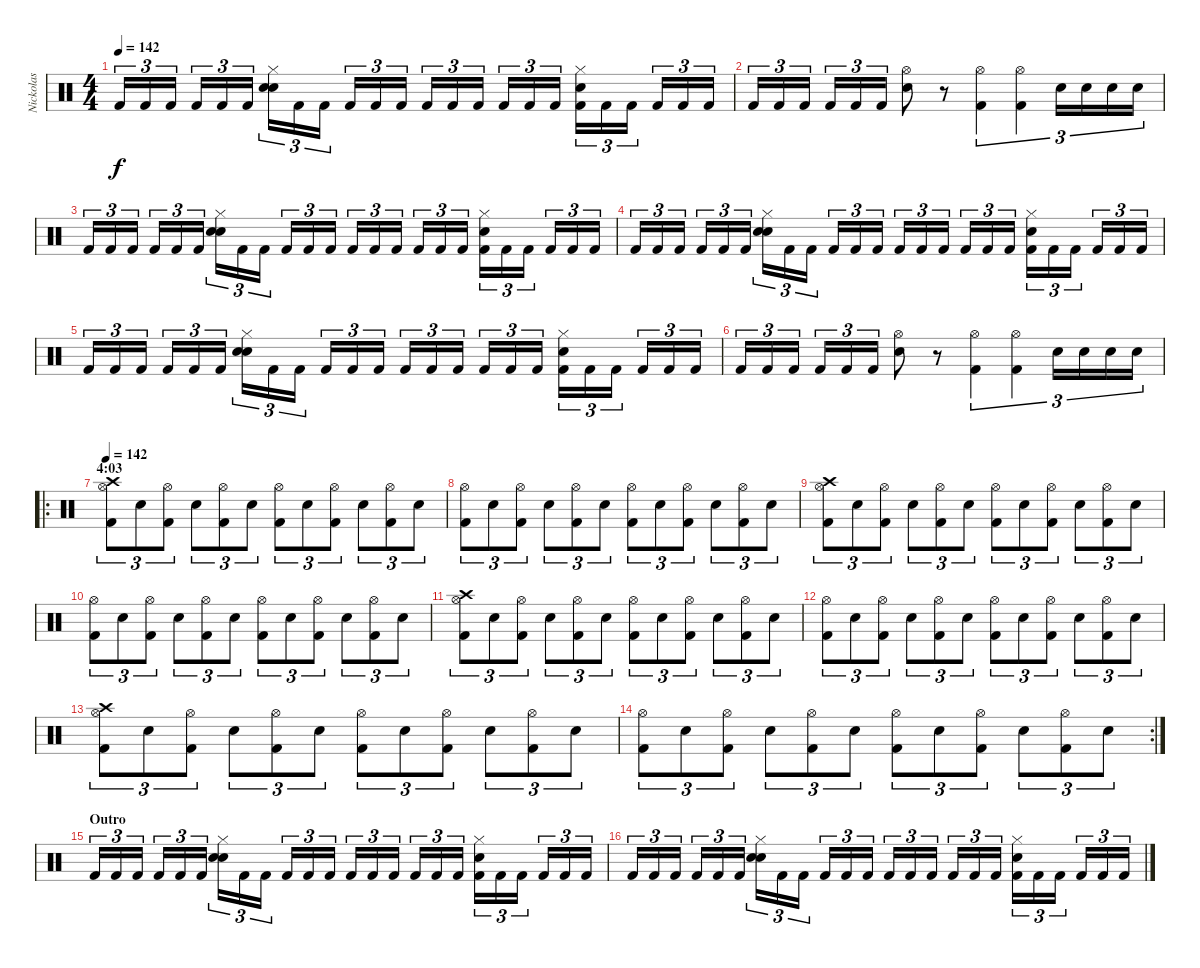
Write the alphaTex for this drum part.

\track ("Nickolas " "Nickolas ") {instrument percussion}
\staff {score}
\articulation defaults
\ts (4 4)
\tempo 142
\clef neutral
\ks c "Kick (hit) 2".16{tu (3 2) dy f} "Kick (hit) 2".16{tu (3 2)} "Kick (hit) 2".16{tu (3 2)} "Kick (hit) 2".16{tu (3 2)} "Kick (hit) 2".16{tu (3 2)} "Kick (hit) 2".16{tu (3 2)}
("Snare (hit) 2" "Snare (hit) 2" "Hi-Hat (closed)").16{tu (3 2)} "Kick (hit) 2".16{tu (3 2)} "Kick (hit) 2".16{tu (3 2)} "Kick (hit) 2".16{tu (3 2)} "Kick (hit) 2".16{tu (3 2)} "Kick (hit) 2".16{tu (3 2)} "Kick (hit) 2".16{tu (3 2)} "Kick (hit) 2".16{tu (3 2)} "Kick (hit) 2".16{tu (3 2)} "Kick (hit) 2".16{tu (3 2)} "Kick (hit) 2".16{tu (3 2)} "Kick (hit) 2".16{tu (3 2)} ("Kick (hit) 2" "Snare (hit) 2" "Hi-Hat (closed)").16{tu (3 2)} "Kick (hit) 2".16{tu (3 2)} "Kick (hit) 2".16{tu (3 2)} "Kick (hit) 2".16{tu (3 2)} "Kick (hit) 2".16{tu (3 2)} "Kick (hit) 2".16{tu (3 2)} |
"Kick (hit) 2".16{tu (3 2)} "Kick (hit) 2".16{tu (3 2)} "Kick (hit) 2".16{tu (3 2)} "Kick (hit) 2".16{tu (3 2)} "Kick (hit) 2".16{tu (3 2)} "Kick (hit) 2".16{tu (3 2)} ("Hi-Hat (open)" "Snare (hit) 2").8 r.8 ("Kick (hit) 2" "Hi-Hat (open)").4{tu (3 2)} ("Kick (hit) 2" "Hi-Hat (open)").4{tu (3 2)} "Snare (hit) 2".16{tu (3 2)} "Snare (hit) 2".16{tu (3 2)} "Snare (hit) 2".16{tu (3 2)} "Snare (hit) 2".16{tu (3 2)} |
"Kick (hit) 2".16{tu (3 2)} "Kick (hit) 2".16{tu (3 2)} "Kick (hit) 2".16{tu (3 2)} "Kick (hit) 2".16{tu (3 2)} "Kick (hit) 2".16{tu (3 2)} "Kick (hit) 2".16{tu (3 2)} ("Snare (hit) 2" "Snare (hit) 2" "Hi-Hat (closed)").16{tu (3 2)} "Kick (hit) 2".16{tu (3 2)} "Kick (hit) 2".16{tu (3 2)} "Kick (hit) 2".16{tu (3 2)} "Kick (hit) 2".16{tu (3 2)} "Kick (hit) 2".16{tu (3 2)} "Kick (hit) 2".16{tu (3 2)} "Kick (hit) 2".16{tu (3 2)} "Kick (hit) 2".16{tu (3 2)} "Kick (hit) 2".16{tu (3 2)} "Kick (hit) 2".16{tu (3 2)} "Kick (hit) 2".16{tu (3 2)} ("Kick (hit) 2" "Snare (hit) 2" "Hi-Hat (closed)").16{tu (3 2)} "Kick (hit) 2".16{tu (3 2)} "Kick (hit) 2".16{tu (3 2)} "Kick (hit) 2".16{tu (3 2)} "Kick (hit) 2".16{tu (3 2)} "Kick (hit) 2".16{tu (3 2)} |
"Kick (hit) 2".16{tu (3 2)} "Kick (hit) 2".16{tu (3 2)} "Kick (hit) 2".16{tu (3 2)} "Kick (hit) 2".16{tu (3 2)} "Kick (hit) 2".16{tu (3 2)} "Kick (hit) 2".16{tu (3 2)} ("Snare (hit) 2" "Snare (hit) 2" "Hi-Hat (closed)").16{tu (3 2)} "Kick (hit) 2".16{tu (3 2)} "Kick (hit) 2".16{tu (3 2)} "Kick (hit) 2".16{tu (3 2)} "Kick (hit) 2".16{tu (3 2)} "Kick (hit) 2".16{tu (3 2)} "Kick (hit) 2".16{tu (3 2)} "Kick (hit) 2".16{tu (3 2)} "Kick (hit) 2".16{tu (3 2)} "Kick (hit) 2".16{tu (3 2)} "Kick (hit) 2".16{tu (3 2)} "Kick (hit) 2".16{tu (3 2)} ("Kick (hit) 2" "Snare (hit) 2" "Hi-Hat (closed)").16{tu (3 2)} "Kick (hit) 2".16{tu (3 2)} "Kick (hit) 2".16{tu (3 2)} "Kick (hit) 2".16{tu (3 2)} "Kick (hit) 2".16{tu (3 2)} "Kick (hit) 2".16{tu (3 2)} |
"Kick (hit) 2".16{tu (3 2)} "Kick (hit) 2".16{tu (3 2)} "Kick (hit) 2".16{tu (3 2)} "Kick (hit) 2".16{tu (3 2)} "Kick (hit) 2".16{tu (3 2)} "Kick (hit) 2".16{tu (3 2)} ("Snare (hit) 2" "Snare (hit) 2" "Hi-Hat (closed)").16{tu (3 2)} "Kick (hit) 2".16{tu (3 2)} "Kick (hit) 2".16{tu (3 2)} "Kick (hit) 2".16{tu (3 2)} "Kick (hit) 2".16{tu (3 2)} "Kick (hit) 2".16{tu (3 2)} "Kick (hit) 2".16{tu (3 2)} "Kick (hit) 2".16{tu (3 2)} "Kick (hit) 2".16{tu (3 2)} "Kick (hit) 2".16{tu (3 2)} "Kick (hit) 2".16{tu (3 2)} "Kick (hit) 2".16{tu (3 2)} ("Kick (hit) 2" "Snare (hit) 2" "Hi-Hat (closed)").16{tu (3 2)} "Kick (hit) 2".16{tu (3 2)} "Kick (hit) 2".16{tu (3 2)} "Kick (hit) 2".16{tu (3 2)} "Kick (hit) 2".16{tu (3 2)} "Kick (hit) 2".16{tu (3 2)} |
"Kick (hit) 2".16{tu (3 2)} "Kick (hit) 2".16{tu (3 2)} "Kick (hit) 2".16{tu (3 2)} "Kick (hit) 2".16{tu (3 2)} "Kick (hit) 2".16{tu (3 2)} "Kick (hit) 2".16{tu (3 2)} ("Hi-Hat (open)" "Snare (hit) 2").8 r.8 ("Kick (hit) 2" "Hi-Hat (open)").4{tu (3 2)} ("Kick (hit) 2" "Hi-Hat (open)").4{tu (3 2)} "Snare (hit) 2".16{tu (3 2)} "Snare (hit) 2".16{tu (3 2)} "Snare (hit) 2".16{tu (3 2)} "Snare (hit) 2".16{tu (3 2)} |
\ro
\section ("" "4:03")
\tempo 142
("Kick (hit) 2" "Crash high (hit)" "Hi-Hat (open)").8{tu (3 2)} "Snare (hit) 2".8{tu (3 2)} ("Kick (hit) 2" "Hi-Hat (open)").8{tu (3 2)} "Snare (hit) 2".8{tu (3 2)} ("Kick (hit) 2" "Hi-Hat (open)").8{tu (3 2)} "Snare (hit) 2".8{tu (3 2)} ("Kick (hit) 2" "Hi-Hat (open)").8{tu (3 2)} "Snare (hit) 2".8{tu (3 2)} ("Kick (hit) 2" "Hi-Hat (open)").8{tu (3 2)} "Snare (hit) 2".8{tu (3 2)} ("Kick (hit) 2" "Hi-Hat (open)").8{tu (3 2)} "Snare (hit) 2".8{tu (3 2)} |
("Kick (hit) 2" "Hi-Hat (open)").8{tu (3 2)} "Snare (hit) 2".8{tu (3 2)} ("Kick (hit) 2" "Hi-Hat (open)").8{tu (3 2)} "Snare (hit) 2".8{tu (3 2)} ("Kick (hit) 2" "Hi-Hat (open)").8{tu (3 2)} "Snare (hit) 2".8{tu (3 2)} ("Kick (hit) 2" "Hi-Hat (open)").8{tu (3 2)} "Snare (hit) 2".8{tu (3 2)} ("Kick (hit) 2" "Hi-Hat (open)").8{tu (3 2)} "Snare (hit) 2".8{tu (3 2)} ("Kick (hit) 2" "Hi-Hat (open)").8{tu (3 2)} "Snare (hit) 2".8{tu (3 2)} |
("Kick (hit) 2" "Crash high (hit)" "Hi-Hat (open)").8{tu (3 2)} "Snare (hit) 2".8{tu (3 2)} ("Kick (hit) 2" "Hi-Hat (open)").8{tu (3 2)} "Snare (hit) 2".8{tu (3 2)} ("Kick (hit) 2" "Hi-Hat (open)").8{tu (3 2)} "Snare (hit) 2".8{tu (3 2)} ("Kick (hit) 2" "Hi-Hat (open)").8{tu (3 2)} "Snare (hit) 2".8{tu (3 2)} ("Kick (hit) 2" "Hi-Hat (open)").8{tu (3 2)} "Snare (hit) 2".8{tu (3 2)} ("Kick (hit) 2" "Hi-Hat (open)").8{tu (3 2)} "Snare (hit) 2".8{tu (3 2)} |
("Kick (hit) 2" "Hi-Hat (open)").8{tu (3 2)} "Snare (hit) 2".8{tu (3 2)} ("Kick (hit) 2" "Hi-Hat (open)").8{tu (3 2)} "Snare (hit) 2".8{tu (3 2)} ("Kick (hit) 2" "Hi-Hat (open)").8{tu (3 2)} "Snare (hit) 2".8{tu (3 2)} ("Kick (hit) 2" "Hi-Hat (open)").8{tu (3 2)} "Snare (hit) 2".8{tu (3 2)} ("Kick (hit) 2" "Hi-Hat (open)").8{tu (3 2)} "Snare (hit) 2".8{tu (3 2)} ("Kick (hit) 2" "Hi-Hat (open)").8{tu (3 2)} "Snare (hit) 2".8{tu (3 2)} |
("Kick (hit) 2" "Crash high (hit)" "Hi-Hat (open)").8{tu (3 2)} "Snare (hit) 2".8{tu (3 2)} ("Kick (hit) 2" "Hi-Hat (open)").8{tu (3 2)} "Snare (hit) 2".8{tu (3 2)} ("Kick (hit) 2" "Hi-Hat (open)").8{tu (3 2)} "Snare (hit) 2".8{tu (3 2)} ("Kick (hit) 2" "Hi-Hat (open)").8{tu (3 2)} "Snare (hit) 2".8{tu (3 2)} ("Kick (hit) 2" "Hi-Hat (open)").8{tu (3 2)} "Snare (hit) 2".8{tu (3 2)} ("Kick (hit) 2" "Hi-Hat (open)").8{tu (3 2)} "Snare (hit) 2".8{tu (3 2)} |
("Kick (hit) 2" "Hi-Hat (open)").8{tu (3 2)} "Snare (hit) 2".8{tu (3 2)} ("Kick (hit) 2" "Hi-Hat (open)").8{tu (3 2)} "Snare (hit) 2".8{tu (3 2)} ("Kick (hit) 2" "Hi-Hat (open)").8{tu (3 2)} "Snare (hit) 2".8{tu (3 2)} ("Kick (hit) 2" "Hi-Hat (open)").8{tu (3 2)} "Snare (hit) 2".8{tu (3 2)} ("Kick (hit) 2" "Hi-Hat (open)").8{tu (3 2)} "Snare (hit) 2".8{tu (3 2)} ("Kick (hit) 2" "Hi-Hat (open)").8{tu (3 2)} "Snare (hit) 2".8{tu (3 2)} |
("Kick (hit) 2" "Crash high (hit)" "Hi-Hat (open)").8{tu (3 2)} "Snare (hit) 2".8{tu (3 2)} ("Kick (hit) 2" "Hi-Hat (open)").8{tu (3 2)} "Snare (hit) 2".8{tu (3 2)} ("Kick (hit) 2" "Hi-Hat (open)").8{tu (3 2)} "Snare (hit) 2".8{tu (3 2)} ("Kick (hit) 2" "Hi-Hat (open)").8{tu (3 2)} "Snare (hit) 2".8{tu (3 2)} ("Kick (hit) 2" "Hi-Hat (open)").8{tu (3 2)} "Snare (hit) 2".8{tu (3 2)} ("Kick (hit) 2" "Hi-Hat (open)").8{tu (3 2)} "Snare (hit) 2".8{tu (3 2)} |
\rc 2
("Kick (hit) 2" "Hi-Hat (open)").8{tu (3 2)} "Snare (hit) 2".8{tu (3 2)} ("Kick (hit) 2" "Hi-Hat (open)").8{tu (3 2)} "Snare (hit) 2".8{tu (3 2)} ("Kick (hit) 2" "Hi-Hat (open)").8{tu (3 2)} "Snare (hit) 2".8{tu (3 2)} ("Kick (hit) 2" "Hi-Hat (open)").8{tu (3 2)} "Snare (hit) 2".8{tu (3 2)} ("Kick (hit) 2" "Hi-Hat (open)").8{tu (3 2)} "Snare (hit) 2".8{tu (3 2)} ("Kick (hit) 2" "Hi-Hat (open)").8{tu (3 2)} "Snare (hit) 2".8{tu (3 2)} |
\section ("" "Outro")
"Kick (hit) 2".16{tu (3 2)} "Kick (hit) 2".16{tu (3 2)} "Kick (hit) 2".16{tu (3 2)} "Kick (hit) 2".16{tu (3 2)} "Kick (hit) 2".16{tu (3 2)} "Kick (hit) 2".16{tu (3 2)} ("Snare (hit) 2" "Snare (hit) 2" "Hi-Hat (closed)").16{tu (3 2)} "Kick (hit) 2".16{tu (3 2)} "Kick (hit) 2".16{tu (3 2)} "Kick (hit) 2".16{tu (3 2)} "Kick (hit) 2".16{tu (3 2)} "Kick (hit) 2".16{tu (3 2)} "Kick (hit) 2".16{tu (3 2)} "Kick (hit) 2".16{tu (3 2)} "Kick (hit) 2".16{tu (3 2)} "Kick (hit) 2".16{tu (3 2)} "Kick (hit) 2".16{tu (3 2)} "Kick (hit) 2".16{tu (3 2)} ("Kick (hit) 2" "Snare (hit) 2" "Hi-Hat (closed)").16{tu (3 2)} "Kick (hit) 2".16{tu (3 2)} "Kick (hit) 2".16{tu (3 2)} "Kick (hit) 2".16{tu (3 2)} "Kick (hit) 2".16{tu (3 2)} "Kick (hit) 2".16{tu (3 2)} |
"Kick (hit) 2".16{tu (3 2)} "Kick (hit) 2".16{tu (3 2)} "Kick (hit) 2".16{tu (3 2)} "Kick (hit) 2".16{tu (3 2)} "Kick (hit) 2".16{tu (3 2)} "Kick (hit) 2".16{tu (3 2)} ("Snare (hit) 2" "Snare (hit) 2" "Hi-Hat (closed)").16{tu (3 2)} "Kick (hit) 2".16{tu (3 2)} "Kick (hit) 2".16{tu (3 2)} "Kick (hit) 2".16{tu (3 2)} "Kick (hit) 2".16{tu (3 2)} "Kick (hit) 2".16{tu (3 2)} "Kick (hit) 2".16{tu (3 2)} "Kick (hit) 2".16{tu (3 2)} "Kick (hit) 2".16{tu (3 2)} "Kick (hit) 2".16{tu (3 2)} "Kick (hit) 2".16{tu (3 2)} "Kick (hit) 2".16{tu (3 2)} ("Kick (hit) 2" "Snare (hit) 2" "Hi-Hat (closed)").16{tu (3 2)} "Kick (hit) 2".16{tu (3 2)} "Kick (hit) 2".16{tu (3 2)} "Kick (hit) 2".16{tu (3 2)} "Kick (hit) 2".16{tu (3 2)} "Kick (hit) 2".16{tu (3 2)}
